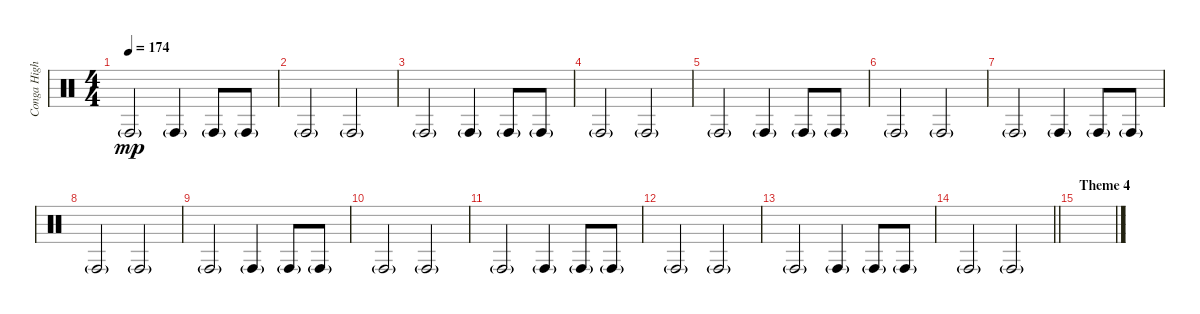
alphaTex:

\track ("Conga High" "Conga High") {instrument percussion}
\staff {score}
\articulation defaults
\ts (4 4)
\tempo 174
\clef neutral
\ks c "Conga high (hit)"{g}.2{dy mp} "Conga high (hit)"{g}.4 "Conga high (hit)"{g}.8 "Conga high (hit)"{g}.8
|
"Conga high (hit)"{g}.2 "Conga high (hit)"{g}.2 |
"Conga high (hit)"{g}.2 "Conga high (hit)"{g}.4 "Conga high (hit)"{g}.8 "Conga high (hit)"{g}.8 |
"Conga high (hit)"{g}.2 "Conga high (hit)"{g}.2 |
"Conga high (hit)"{g}.2 "Conga high (hit)"{g}.4 "Conga high (hit)"{g}.8 "Conga high (hit)"{g}.8 |
"Conga high (hit)"{g}.2 "Conga high (hit)"{g}.2 |
"Conga high (hit)"{g}.2 "Conga high (hit)"{g}.4 "Conga high (hit)"{g}.8 "Conga high (hit)"{g}.8 |
"Conga high (hit)"{g}.2 "Conga high (hit)"{g}.2 |
"Conga high (hit)"{g}.2 "Conga high (hit)"{g}.4 "Conga high (hit)"{g}.8 "Conga high (hit)"{g}.8 |
"Conga high (hit)"{g}.2 "Conga high (hit)"{g}.2 |
"Conga high (hit)"{g}.2 "Conga high (hit)"{g}.4 "Conga high (hit)"{g}.8 "Conga high (hit)"{g}.8 |
"Conga high (hit)"{g}.2 "Conga high (hit)"{g}.2 |
"Conga high (hit)"{g}.2 "Conga high (hit)"{g}.4 "Conga high (hit)"{g}.8 "Conga high (hit)"{g}.8 |
\barLineRight lightlight "Conga high (hit)"{g}.2 "Conga high (hit)"{g}.2
|
\section ("" "Theme 4")
